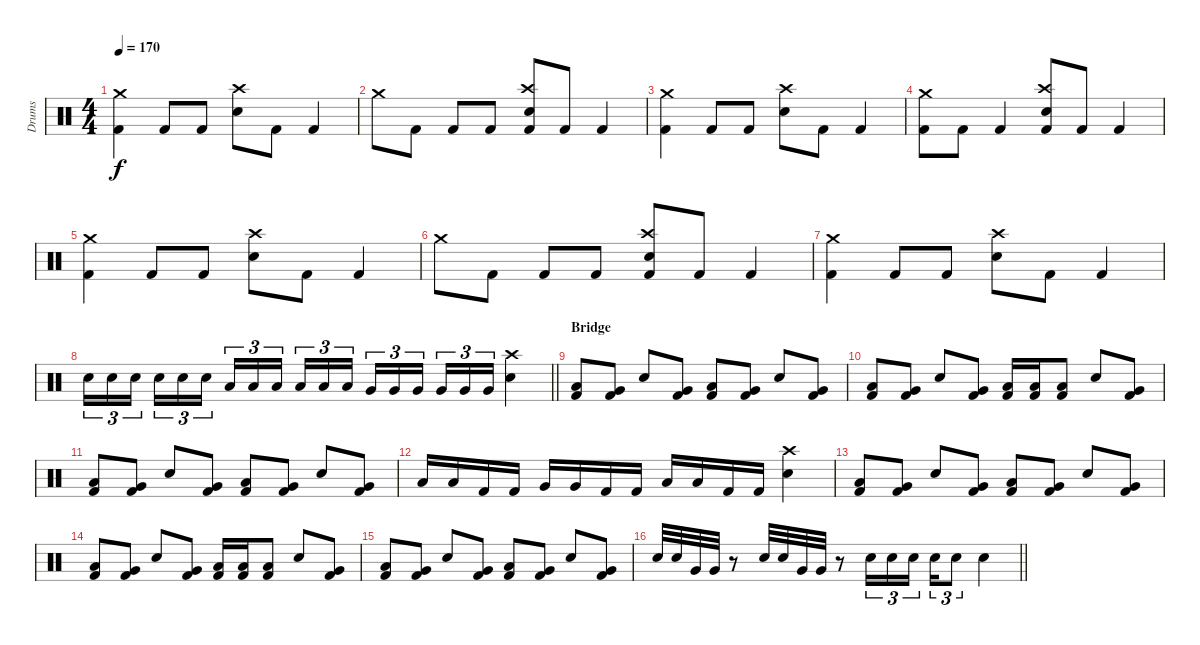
\track ("Drums" "Drums") {instrument percussion}
\staff {score}
\articulation defaults
\ts (4 4)
\tempo 170
\clef neutral
\ks c
("Crash medium (hit)" "Kick (hit) 2").4{dy f} "Kick (hit) 2".8 "Kick (hit) 2".8 ("Crash high (hit)" "Electric Snare (hit)").8 "Kick (hit) 2".8 "Kick (hit) 2".4 |
"Crash medium (hit)".8 "Kick (hit) 2".8 "Kick (hit) 2".8 "Kick (hit) 2".8 ("Crash high (hit)" "Electric Snare (hit)" "Kick (hit) 2").8 "Kick (hit) 2".8 "Kick (hit) 2".4 |
("Crash medium (hit)" "Kick (hit) 2").4 "Kick (hit) 2".8 "Kick (hit) 2".8 ("Crash high (hit)" "Electric Snare (hit)").8 "Kick (hit) 2".8 "Kick (hit) 2".4 |
("Crash medium (hit)" "Kick (hit) 2").8 "Kick (hit) 2".8 "Kick (hit) 2".4 ("Crash high (hit)" "Electric Snare (hit)" "Kick (hit) 2").8 "Kick (hit) 2".8 "Kick (hit) 2".4 |
("Crash medium (hit)" "Kick (hit) 2").4 "Kick (hit) 2".8 "Kick (hit) 2".8 ("Crash high (hit)" "Electric Snare (hit)").8 "Kick (hit) 2".8 "Kick (hit) 2".4 |
"Crash medium (hit)".8 "Kick (hit) 2".8 "Kick (hit) 2".8 "Kick (hit) 2".8 ("Crash high (hit)" "Electric Snare (hit)" "Kick (hit) 2").8 "Kick (hit) 2".8 "Kick (hit) 2".4 |
("Crash medium (hit)" "Kick (hit) 2").4 "Kick (hit) 2".8 "Kick (hit) 2".8 ("Crash high (hit)" "Electric Snare (hit)").8 "Kick (hit) 2".8 "Kick (hit) 2".4 |
\barLineRight lightlight "Electric Snare (hit)".16{tu (3 2)} "Electric Snare (hit)".16{tu (3 2)} "Electric Snare (hit)".16{tu (3 2) beam splitsecondary} "Electric Snare (hit)".16{tu (3 2)} "Electric Snare (hit)".16{tu (3 2)} "Electric Snare (hit)".16{tu (3 2)} "Low Tom (hit)".16{tu (3 2)} "Low Tom (hit)".16{tu (3 2)} "Low Tom (hit)".16{tu (3 2) beam splitsecondary} "Low Tom (hit)".16{tu (3 2)} "Low Tom (hit)".16{tu (3 2)} "Low Tom (hit)".16{tu (3 2)} "Very Low Tom (hit)".16{tu (3 2)} "Very Low Tom (hit)".16{tu (3 2)} "Very Low Tom (hit)".16{tu (3 2) beam splitsecondary} "Very Low Tom (hit)".16{tu (3 2)} "Very Low Tom (hit)".16{tu (3 2)} "Very Low Tom (hit)".16{tu (3 2)}
("Crash high (hit)" "Electric Snare (hit)").4 |
\section ("" "Bridge")
("Low Tom (hit)" "Kick (hit) 2").8 ("Very Low Tom (hit)" "Kick (hit) 2").8 "Electric Snare (hit)".8 ("Very Low Tom (hit)" "Kick (hit) 2").8 ("Low Tom (hit)" "Kick (hit) 2").8 ("Very Low Tom (hit)" "Kick (hit) 2").8 "Electric Snare (hit)".8 ("Very Low Tom (hit)" "Kick (hit) 2").8 |
("Low Tom (hit)" "Kick (hit) 2").8 ("Very Low Tom (hit)" "Kick (hit) 2").8 "Electric Snare (hit)".8 ("Very Low Tom (hit)" "Kick (hit) 2").8 ("Low Tom (hit)" "Kick (hit) 2").16 ("Low Tom (hit)" "Kick (hit) 2").16 ("Low Tom (hit)" "Kick (hit) 2").8 "Electric Snare (hit)".8 ("Very Low Tom (hit)" "Kick (hit) 2").8 |
("Low Tom (hit)" "Kick (hit) 2").8 ("Very Low Tom (hit)" "Kick (hit) 2").8 "Electric Snare (hit)".8 ("Very Low Tom (hit)" "Kick (hit) 2").8 ("Low Tom (hit)" "Kick (hit) 2").8 ("Very Low Tom (hit)" "Kick (hit) 2").8 "Electric Snare (hit)".8 ("Very Low Tom (hit)" "Kick (hit) 2").8 |
"Low Tom (hit)".16 "Low Tom (hit)".16 "Kick (hit) 2".16 "Kick (hit) 2".16 "Very Low Tom (hit)".16 "Very Low Tom (hit)".16 "Kick (hit) 2".16 "Kick (hit) 2".16 "Low Floor Tom (hit)".16 "Low Floor Tom (hit)".16 "Kick (hit) 2".16 "Kick (hit) 2".16 ("Crash high (hit)" "Electric Snare (hit)").4 |
("Low Tom (hit)" "Kick (hit) 2").8 ("Very Low Tom (hit)" "Kick (hit) 2").8 "Electric Snare (hit)".8 ("Very Low Tom (hit)" "Kick (hit) 2").8 ("Low Tom (hit)" "Kick (hit) 2").8 ("Very Low Tom (hit)" "Kick (hit) 2").8 "Electric Snare (hit)".8 ("Very Low Tom (hit)" "Kick (hit) 2").8 |
("Low Tom (hit)" "Kick (hit) 2").8 ("Very Low Tom (hit)" "Kick (hit) 2").8 "Electric Snare (hit)".8 ("Very Low Tom (hit)" "Kick (hit) 2").8 ("Low Tom (hit)" "Kick (hit) 2").16 ("Low Tom (hit)" "Kick (hit) 2").16 ("Low Tom (hit)" "Kick (hit) 2").8 "Electric Snare (hit)".8 ("Very Low Tom (hit)" "Kick (hit) 2").8 |
("Low Tom (hit)" "Kick (hit) 2").8 ("Very Low Tom (hit)" "Kick (hit) 2").8 "Electric Snare (hit)".8 ("Very Low Tom (hit)" "Kick (hit) 2").8 ("Low Tom (hit)" "Kick (hit) 2").8 ("Very Low Tom (hit)" "Kick (hit) 2").8 "Electric Snare (hit)".8 ("Very Low Tom (hit)" "Kick (hit) 2").8 |
\barLineRight lightlight "Electric Snare (hit)".32 "Electric Snare (hit)".32 "Very Low Tom (hit)".32 "Very Low Tom (hit)".32
r.8 "Electric Snare (hit)".32 "Electric Snare (hit)".32 "Very Low Tom (hit)".32 "Very Low Tom (hit)".32 r.8 "Electric Snare (hit)".16{tu (3 2)} "Electric Snare (hit)".16{tu (3 2)} "Electric Snare (hit)".16{tu (3 2) beam splitsecondary} "Electric Snare (hit)".16{tu (3 2)} "Electric Snare (hit)".8{tu (3 2)} "Electric Snare (hit)".4
